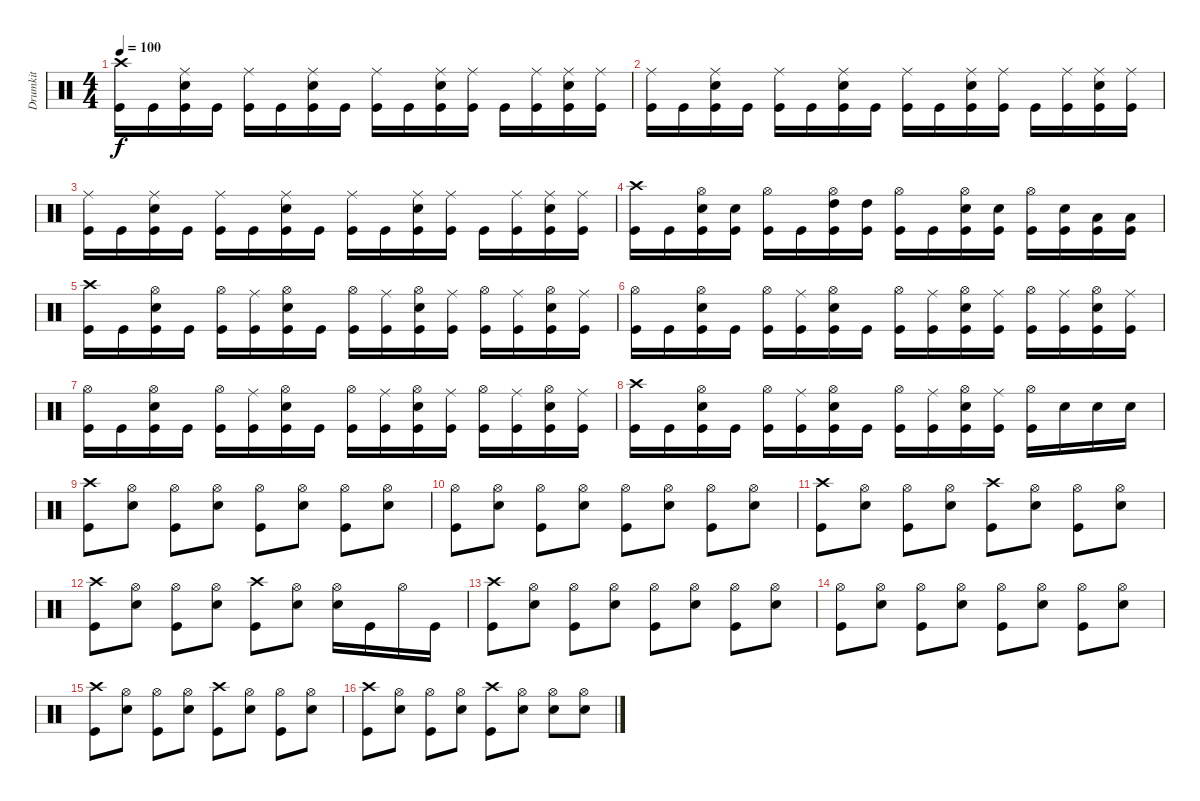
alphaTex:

\track ("Drumkit" "Drumkit") {instrument percussion}
\staff {score}
\articulation defaults
\ts (4 4)
\tempo 100
\clef neutral
\ks c
("Crash high (hit)" "Kick (hit)").16{dy f} "Kick (hit)".16 ("Ride (middle)" "Snare (hit) 2" "Kick (hit)").16 "Kick (hit)".16 ("Ride (middle)" "Kick (hit)").16 "Kick (hit)".16 ("Ride (middle)" "Snare (hit) 2" "Kick (hit)").16 "Kick (hit)".16 ("Ride (middle)" "Kick (hit)").16 "Kick (hit)".16 ("Ride (middle)" "Snare (hit) 2" "Kick (hit)").16 ("Ride (middle)" "Kick (hit)").16 "Kick (hit)".16 ("Ride (middle)" "Kick (hit)").16 ("Ride (middle)" "Snare (hit) 2" "Kick (hit)").16 ("Ride (middle)" "Kick (hit)").16 |
("Ride (middle)" "Kick (hit)").16 "Kick (hit)".16 ("Ride (middle)" "Snare (hit) 2" "Kick (hit)").16 "Kick (hit)".16 ("Ride (middle)" "Kick (hit)").16 "Kick (hit)".16 ("Ride (middle)" "Snare (hit) 2" "Kick (hit)").16 "Kick (hit)".16 ("Ride (middle)" "Kick (hit)").16 "Kick (hit)".16 ("Ride (middle)" "Snare (hit) 2" "Kick (hit)").16 ("Ride (middle)" "Kick (hit)").16 "Kick (hit)".16 ("Ride (middle)" "Kick (hit)").16 ("Ride (middle)" "Snare (hit) 2" "Kick (hit)").16 ("Ride (middle)" "Kick (hit)").16 |
("Ride (middle)" "Kick (hit)").16 "Kick (hit)".16 ("Ride (middle)" "Snare (hit) 2" "Kick (hit)").16 "Kick (hit)".16 ("Ride (middle)" "Kick (hit)").16 "Kick (hit)".16 ("Ride (middle)" "Snare (hit) 2" "Kick (hit)").16 "Kick (hit)".16 ("Ride (middle)" "Kick (hit)").16 "Kick (hit)".16 ("Ride (middle)" "Snare (hit) 2" "Kick (hit)").16 ("Ride (middle)" "Kick (hit)").16 "Kick (hit)".16 ("Ride (middle)" "Kick (hit)").16 ("Ride (middle)" "Snare (hit) 2" "Kick (hit)").16 ("Ride (middle)" "Kick (hit)").16 |
("Crash high (hit)" "Kick (hit)").16 "Kick (hit)".16 ("Hi-Hat (open)" "Snare (hit) 2" "Kick (hit)").16 ("Snare (hit) 2" "Kick (hit)").16 ("Hi-Hat (open)" "Kick (hit)").16 "Kick (hit)".16 ("High Tom (hit)" "Hi-Hat (open)" "Kick (hit)").16 ("High Tom (hit)" "Kick (hit)").16 ("Hi-Hat (open)" "Kick (hit)").16 "Kick (hit)".16 ("Hi-Hat (open)" "Snare (hit) 2" "Kick (hit)").16 ("Snare (hit) 2" "Kick (hit)").16 ("Hi-Hat (open)" "Kick (hit)").16 ("Snare (hit) 2" "Kick (hit)").16 ("Low Tom (hit)" "Kick (hit)").16 ("Low Tom (hit)" "Kick (hit)").16 |
("Crash high (hit)" "Kick (hit)").16 "Kick (hit)".16 ("Hi-Hat (open)" "Snare (hit) 2" "Kick (hit)").16 "Kick (hit)".16 ("Hi-Hat (open)" "Kick (hit)").16 ("Ride (middle)" "Kick (hit)").16 ("Hi-Hat (open)" "Snare (hit) 2" "Kick (hit)").16 "Kick (hit)".16 ("Hi-Hat (open)" "Kick (hit)").16 ("Ride (middle)" "Kick (hit)").16 ("Hi-Hat (open)" "Snare (hit) 2" "Kick (hit)").16 ("Ride (middle)" "Kick (hit)").16 ("Hi-Hat (open)" "Kick (hit)").16 ("Ride (middle)" "Kick (hit)").16 ("Hi-Hat (open)" "Snare (hit) 2" "Kick (hit)").16 ("Ride (middle)" "Kick (hit)").16 |
("Hi-Hat (open)" "Kick (hit)").16 "Kick (hit)".16 ("Hi-Hat (open)" "Snare (hit) 2" "Kick (hit)").16 "Kick (hit)".16 ("Hi-Hat (open)" "Kick (hit)").16 ("Ride (middle)" "Kick (hit)").16 ("Hi-Hat (open)" "Snare (hit) 2" "Kick (hit)").16 "Kick (hit)".16 ("Hi-Hat (open)" "Kick (hit)").16 ("Ride (middle)" "Kick (hit)").16 ("Hi-Hat (open)" "Snare (hit) 2" "Kick (hit)").16 ("Ride (middle)" "Kick (hit)").16 ("Hi-Hat (open)" "Kick (hit)").16 ("Ride (middle)" "Kick (hit)").16 ("Hi-Hat (open)" "Snare (hit) 2" "Kick (hit)").16 ("Ride (middle)" "Kick (hit)").16 |
("Hi-Hat (open)" "Kick (hit)").16 "Kick (hit)".16 ("Hi-Hat (open)" "Snare (hit) 2" "Kick (hit)").16 "Kick (hit)".16 ("Hi-Hat (open)" "Kick (hit)").16 ("Ride (middle)" "Kick (hit)").16 ("Hi-Hat (open)" "Snare (hit) 2" "Kick (hit)").16 "Kick (hit)".16 ("Hi-Hat (open)" "Kick (hit)").16 ("Ride (middle)" "Kick (hit)").16 ("Hi-Hat (open)" "Snare (hit) 2" "Kick (hit)").16 ("Ride (middle)" "Kick (hit)").16 ("Hi-Hat (open)" "Kick (hit)").16 ("Ride (middle)" "Kick (hit)").16 ("Hi-Hat (open)" "Snare (hit) 2" "Kick (hit)").16 ("Ride (middle)" "Kick (hit)").16 |
("Crash high (hit)" "Kick (hit)").16 "Kick (hit)".16 ("Hi-Hat (open)" "Snare (hit) 2" "Kick (hit)").16 "Kick (hit)".16 ("Hi-Hat (open)" "Kick (hit)").16 ("Ride (middle)" "Kick (hit)").16 ("Hi-Hat (open)" "Snare (hit) 2" "Kick (hit)").16 "Kick (hit)".16 ("Hi-Hat (open)" "Kick (hit)").16 ("Ride (middle)" "Kick (hit)").16 ("Hi-Hat (open)" "Snare (hit) 2" "Kick (hit)").16 ("Ride (middle)" "Kick (hit)").16 ("Hi-Hat (open)" "Kick (hit)").16 "Snare (hit) 2".16 "Snare (hit) 2".16 "Snare (hit) 2".16 |
("Crash high (hit)" "Kick (hit)").8 ("Hi-Hat (open)" "Snare (hit) 2").8 ("Hi-Hat (open)" "Kick (hit)").8 ("Hi-Hat (open)" "Snare (hit) 2").8 ("Hi-Hat (open)" "Kick (hit)").8 ("Hi-Hat (open)" "Snare (hit) 2").8 ("Hi-Hat (open)" "Kick (hit)").8 ("Hi-Hat (open)" "Snare (hit) 2").8 |
("Hi-Hat (open)" "Kick (hit)").8 ("Hi-Hat (open)" "Snare (hit) 2").8 ("Hi-Hat (open)" "Kick (hit)").8 ("Hi-Hat (open)" "Snare (hit) 2").8 ("Hi-Hat (open)" "Kick (hit)").8 ("Hi-Hat (open)" "Snare (hit) 2").8 ("Hi-Hat (open)" "Kick (hit)").8 ("Hi-Hat (open)" "Snare (hit) 2").8 |
("Crash high (hit)" "Kick (hit)").8 ("Hi-Hat (open)" "Snare (hit) 2").8 ("Hi-Hat (open)" "Kick (hit)").8 ("Hi-Hat (open)" "Snare (hit) 2").8 ("Crash high (hit)" "Kick (hit)").8 ("Hi-Hat (open)" "Snare (hit) 2").8 ("Hi-Hat (open)" "Kick (hit)").8 ("Hi-Hat (open)" "Snare (hit) 2").8 |
("Crash high (hit)" "Kick (hit)").8 ("Hi-Hat (open)" "Snare (hit) 2").8 ("Hi-Hat (open)" "Kick (hit)").8 ("Hi-Hat (open)" "Snare (hit) 2").8 ("Crash high (hit)" "Kick (hit)").8 ("Hi-Hat (open)" "Snare (hit) 2").8 ("Hi-Hat (open)" "Snare (hit) 2").16 "Kick (hit)".16 "Hi-Hat (open)".16 "Kick (hit)".16 |
("Crash high (hit)" "Kick (hit)").8 ("Hi-Hat (open)" "Snare (hit) 2").8 ("Hi-Hat (open)" "Kick (hit)").8 ("Hi-Hat (open)" "Snare (hit) 2").8 ("Hi-Hat (open)" "Kick (hit)").8 ("Hi-Hat (open)" "Snare (hit) 2").8 ("Hi-Hat (open)" "Kick (hit)").8 ("Hi-Hat (open)" "Snare (hit) 2").8 |
("Hi-Hat (open)" "Kick (hit)").8 ("Hi-Hat (open)" "Snare (hit) 2").8 ("Hi-Hat (open)" "Kick (hit)").8 ("Hi-Hat (open)" "Snare (hit) 2").8 ("Hi-Hat (open)" "Kick (hit)").8 ("Hi-Hat (open)" "Snare (hit) 2").8 ("Hi-Hat (open)" "Kick (hit)").8 ("Hi-Hat (open)" "Snare (hit) 2").8 |
("Crash high (hit)" "Kick (hit)").8 ("Hi-Hat (open)" "Snare (hit) 2").8 ("Hi-Hat (open)" "Kick (hit)").8 ("Hi-Hat (open)" "Snare (hit) 2").8 ("Crash high (hit)" "Kick (hit)").8 ("Hi-Hat (open)" "Snare (hit) 2").8 ("Hi-Hat (open)" "Kick (hit)").8 ("Hi-Hat (open)" "Snare (hit) 2").8 |
("Crash high (hit)" "Kick (hit)").8 ("Hi-Hat (open)" "Snare (hit) 2").8 ("Hi-Hat (open)" "Kick (hit)").8 ("Hi-Hat (open)" "Snare (hit) 2").8 ("Crash high (hit)" "Kick (hit)").8 ("Hi-Hat (open)" "Snare (hit) 2").8 ("Hi-Hat (open)" "Snare (hit) 2").8 ("Hi-Hat (open)" "Snare (hit) 2").8
